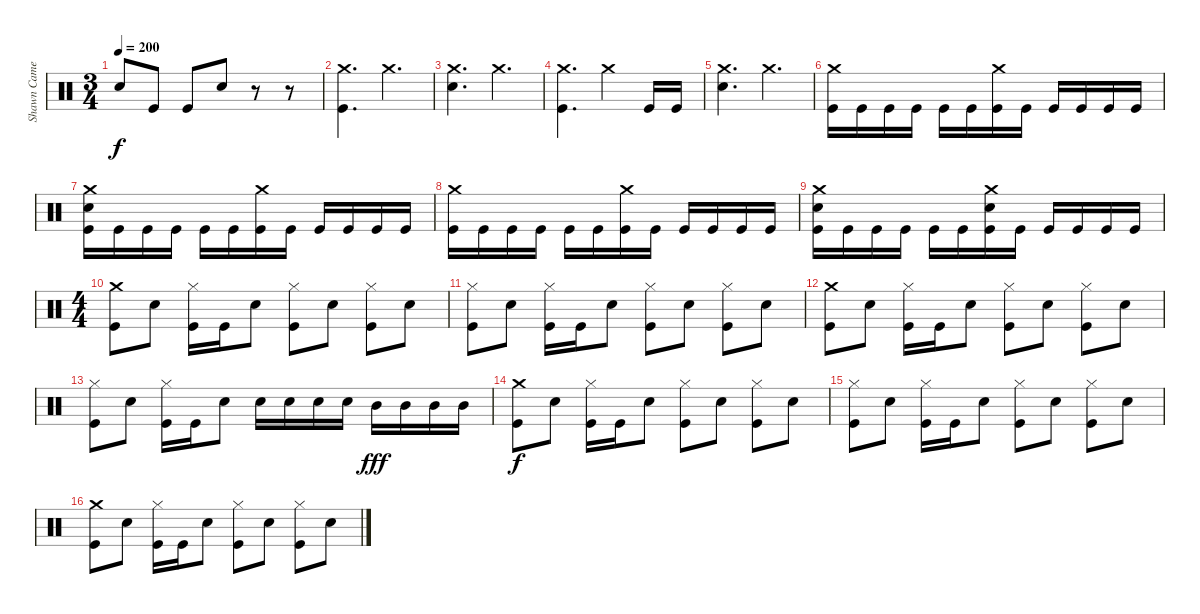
\track ("Shawn Cameron" "Shawn Came") {instrument percussion}
\staff {score}
\articulation defaults
\ts (3 4)
\tempo 200
\clef neutral
\ks c "Snare (hit) 2".8{dy f} "Kick (hit)".8 "Kick (hit)".8 "Snare (hit) 2".8
r.8 r.8 |
("Crash medium (hit)" "Kick (hit)").4{d} "Crash medium (hit)".4{d} |
("Crash medium (hit)" "Snare (hit) 2").4{d} "Crash medium (hit)".4{d} |
("Crash medium (hit)" "Kick (hit)").4{d} "Crash medium (hit)".4 "Kick (hit)".16 "Kick (hit)".16 |
("Crash medium (hit)" "Snare (hit) 2").4{d} "Crash medium (hit)".4{d} |
("Crash medium (hit)" "Kick (hit)").16 "Kick (hit)".16 "Kick (hit)".16 "Kick (hit)".16 "Kick (hit)".16 "Kick (hit)".16 ("Crash medium (hit)" "Kick (hit)").16 "Kick (hit)".16 "Kick (hit)".16 "Kick (hit)".16 "Kick (hit)".16 "Kick (hit)".16 |
("Crash medium (hit)" "Snare (hit) 2" "Kick (hit)").16 "Kick (hit)".16 "Kick (hit)".16 "Kick (hit)".16 "Kick (hit)".16 "Kick (hit)".16 ("Crash medium (hit)" "Kick (hit)").16 "Kick (hit)".16 "Kick (hit)".16 "Kick (hit)".16 "Kick (hit)".16 "Kick (hit)".16 |
("Crash medium (hit)" "Kick (hit)").16 "Kick (hit)".16 "Kick (hit)".16 "Kick (hit)".16 "Kick (hit)".16 "Kick (hit)".16 ("Crash medium (hit)" "Kick (hit)").16 "Kick (hit)".16 "Kick (hit)".16 "Kick (hit)".16 "Kick (hit)".16 "Kick (hit)".16 |
("Crash medium (hit)" "Snare (hit) 2" "Kick (hit)").16 "Kick (hit)".16 "Kick (hit)".16 "Kick (hit)".16 "Kick (hit)".16 "Kick (hit)".16 ("Crash medium (hit)" "Snare (hit) 2" "Kick (hit)").16 "Kick (hit)".16 "Kick (hit)".16 "Kick (hit)".16 "Kick (hit)".16 "Kick (hit)".16 |
\ts (4 4)
("Crash medium (hit)" "Kick (hit)").8 "Snare (hit) 2".8 ("Hi-Hat (closed)" "Kick (hit)").16 "Kick (hit)".16 "Snare (hit) 2".8 ("Hi-Hat (closed)" "Kick (hit)").8 "Snare (hit) 2".8 ("Hi-Hat (closed)" "Kick (hit)").8 "Snare (hit) 2".8 |
("Hi-Hat (closed)" "Kick (hit)").8 "Snare (hit) 2".8 ("Hi-Hat (closed)" "Kick (hit)").16 "Kick (hit)".16 "Snare (hit) 2".8 ("Hi-Hat (closed)" "Kick (hit)").8 "Snare (hit) 2".8 ("Hi-Hat (closed)" "Kick (hit)").8 "Snare (hit) 2".8 |
("Crash medium (hit)" "Kick (hit)").8 "Snare (hit) 2".8 ("Hi-Hat (closed)" "Kick (hit)").16 "Kick (hit)".16 "Snare (hit) 2".8 ("Hi-Hat (closed)" "Kick (hit)").8 "Snare (hit) 2".8 ("Hi-Hat (closed)" "Kick (hit)").8 "Snare (hit) 2".8 |
("Hi-Hat (closed)" "Kick (hit)").8 "Snare (hit) 2".8 ("Hi-Hat (closed)" "Kick (hit)").16 "Kick (hit)".16 "Snare (hit) 2".8 "Snare (hit) 2".16 "Snare (hit) 2".16 "Snare (hit) 2".16 "Snare (hit) 2".16 "Mid Tom (hit)".16{dy fff} "Mid Tom (hit)".16 "Mid Tom (hit)".16 "Mid Tom (hit)".16 |
("Crash medium (hit)" "Kick (hit)").8{dy f} "Snare (hit) 2".8 ("Hi-Hat (closed)" "Kick (hit)").16 "Kick (hit)".16 "Snare (hit) 2".8 ("Hi-Hat (closed)" "Kick (hit)").8 "Snare (hit) 2".8 ("Hi-Hat (closed)" "Kick (hit)").8 "Snare (hit) 2".8 |
("Hi-Hat (closed)" "Kick (hit)").8 "Snare (hit) 2".8 ("Hi-Hat (closed)" "Kick (hit)").16 "Kick (hit)".16 "Snare (hit) 2".8 ("Hi-Hat (closed)" "Kick (hit)").8 "Snare (hit) 2".8 ("Hi-Hat (closed)" "Kick (hit)").8 "Snare (hit) 2".8 |
("Crash medium (hit)" "Kick (hit)").8 "Snare (hit) 2".8 ("Hi-Hat (closed)" "Kick (hit)").16 "Kick (hit)".16 "Snare (hit) 2".8 ("Hi-Hat (closed)" "Kick (hit)").8 "Snare (hit) 2".8 ("Hi-Hat (closed)" "Kick (hit)").8 "Snare (hit) 2".8
